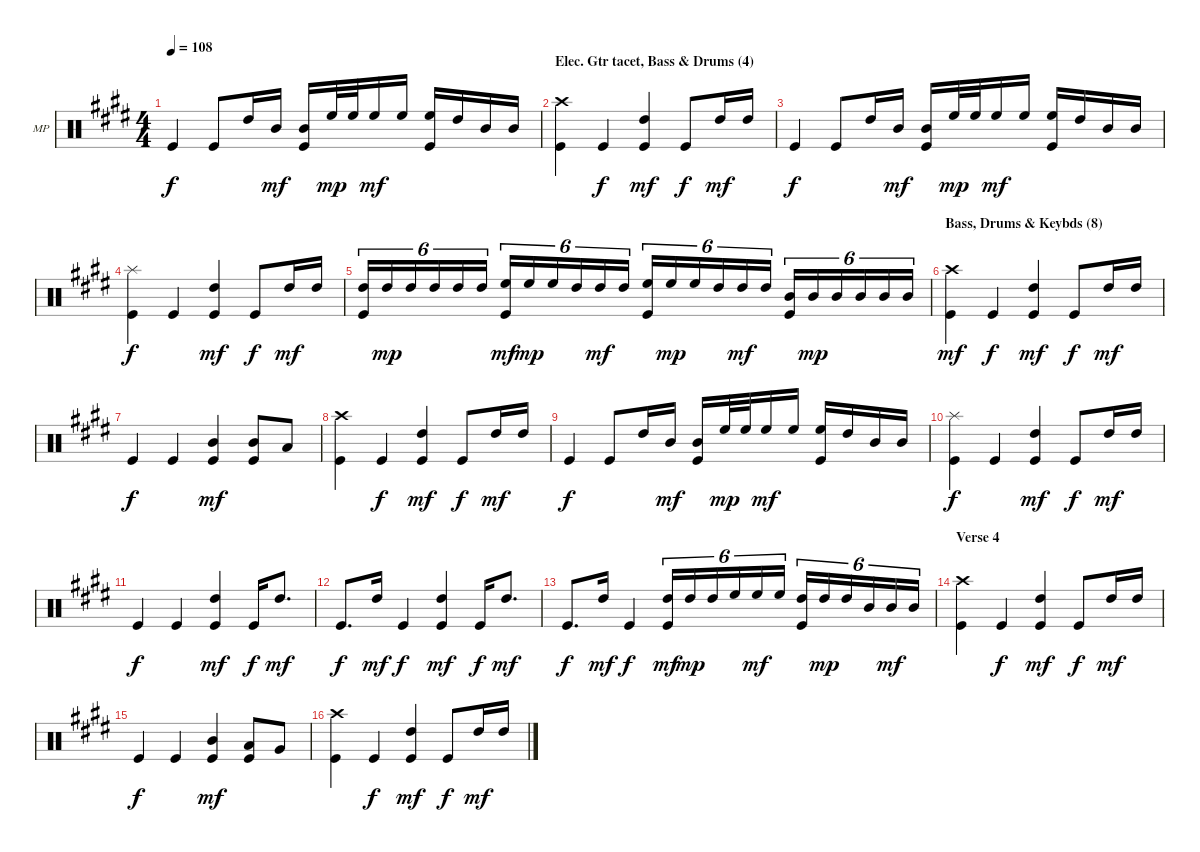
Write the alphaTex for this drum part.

\defaultSystemsLayout 4
\bracketExtendMode groupsimilarinstruments
\firstSystemTrackNameOrientation horizontal
\otherSystemsTrackNameOrientation horizontal
\track ("Mike Portnoy" "MP") {instrument percussion}
\staff {score}
\articulation defaults
\ts (4 4)
\tempo 108
\clef neutral
\ks e "Kick (hit)".4{dy f} "Kick (hit)".8 "High Tom (hit)".16 "Mid Tom (hit)".16{dy mf}
("Mid Tom (hit)" "Kick (hit)").16 "High Floor Tom (hit)".32{dy mp} "High Floor Tom (hit)".32 "High Floor Tom (hit)".16{dy mf} "High Floor Tom (hit)".16 ("High Floor Tom (hit)" "Kick (hit)").16 "High Tom (hit)".16 "Mid Tom (hit)".16 "Mid Tom (hit)".16 |
\section ("" "Elec. Gtr tacet, Bass & Drums (4)")
("Crash high (hit)" "Kick (hit)").4 "Kick (hit)".4{dy f} ("High Tom (hit)" "Kick (hit)").4{dy mf} "Kick (hit)".8{dy f} "High Tom (hit)".16{dy mf} "High Tom (hit)".16 |
"Kick (hit)".4{dy f} "Kick (hit)".8 "High Tom (hit)".16 "Mid Tom (hit)".16{dy mf} ("Mid Tom (hit)" "Kick (hit)").16 "High Floor Tom (hit)".32{dy mp} "High Floor Tom (hit)".32 "High Floor Tom (hit)".16{dy mf} "High Floor Tom (hit)".16 ("High Floor Tom (hit)" "Kick (hit)").16 "High Tom (hit)".16 "Mid Tom (hit)".16 "Mid Tom (hit)".16 |
("Splash (hit)" "Kick (hit)").4{dy f} "Kick (hit)".4 ("High Tom (hit)" "Kick (hit)").4{dy mf} "Kick (hit)".8{dy f} "High Tom (hit)".16{dy mf} "High Tom (hit)".16 |
("High Tom (hit)" "Kick (hit)").16{tu (6 4)} "High Tom (hit)".16{tu (6 4) dy mp} "High Tom (hit)".16{tu (6 4)} "High Tom (hit)".16{tu (6 4)} "High Tom (hit)".16{tu (6 4)} "High Tom (hit)".16{tu (6 4)} ("High Floor Tom (hit)" "Kick (hit)").16{tu (6 4) dy mf} "High Floor Tom (hit)".16{tu (6 4) dy mp} "High Floor Tom (hit)".16{tu (6 4)} "High Tom (hit)".16{tu (6 4)} "High Tom (hit)".16{tu (6 4) dy mf} "High Tom (hit)".16{tu (6 4)} ("High Floor Tom (hit)" "Kick (hit)").16{tu (6 4)} "High Floor Tom (hit)".16{tu (6 4) dy mp} "High Floor Tom (hit)".16{tu (6 4)} "High Tom (hit)".16{tu (6 4)} "High Tom (hit)".16{tu (6 4) dy mf} "High Tom (hit)".16{tu (6 4)} ("Mid Tom (hit)" "Kick (hit)").16{tu (6 4)} "Mid Tom (hit)".16{tu (6 4) dy mp} "Mid Tom (hit)".16{tu (6 4)} "Mid Tom (hit)".16{tu (6 4)} "Mid Tom (hit)".16{tu (6 4)} "Mid Tom (hit)".16{tu (6 4)} |
\section ("" "Bass, Drums & Keybds (8)")
("Crash high (hit)" "Kick (hit)").4{dy mf} "Kick (hit)".4{dy f} ("High Tom (hit)" "Kick (hit)").4{dy mf} "Kick (hit)".8{dy f} "High Tom (hit)".16{dy mf} "High Tom (hit)".16 |
"Kick (hit)".4{dy f} "Kick (hit)".4 ("Mid Tom (hit)" "Kick (hit)").4{dy mf} ("Mid Tom (hit)" "Kick (hit)").8 "Low Tom (hit)".8 |
("Crash high (hit)" "Kick (hit)").4 "Kick (hit)".4{dy f} ("High Tom (hit)" "Kick (hit)").4{dy mf} "Kick (hit)".8{dy f} "High Tom (hit)".16{dy mf} "High Tom (hit)".16 |
"Kick (hit)".4{dy f} "Kick (hit)".8 "High Tom (hit)".16 "Mid Tom (hit)".16{dy mf} ("Mid Tom (hit)" "Kick (hit)").16 "High Floor Tom (hit)".32{dy mp} "High Floor Tom (hit)".32 "High Floor Tom (hit)".16{dy mf} "High Floor Tom (hit)".16 ("High Floor Tom (hit)" "Kick (hit)").16 "High Tom (hit)".16 "Mid Tom (hit)".16 "Mid Tom (hit)".16 |
("Splash (hit)" "Kick (hit)").4{dy f} "Kick (hit)".4 ("High Tom (hit)" "Kick (hit)").4{dy mf} "Kick (hit)".8{dy f} "High Tom (hit)".16{dy mf} "High Tom (hit)".16 |
"Kick (hit)".4{dy f} "Kick (hit)".4 ("High Tom (hit)" "Kick (hit)").4{dy mf} "Kick (hit)".16{dy f} "High Tom (hit)".8{d dy mf} |
"Kick (hit)".8{d dy f} "High Tom (hit)".16{dy mf} "Kick (hit)".4{dy f} ("High Tom (hit)" "Kick (hit)").4{dy mf} "Kick (hit)".16{dy f} "High Tom (hit)".8{d dy mf} |
"Kick (hit)".8{d dy f} "High Tom (hit)".16{dy mf} "Kick (hit)".4{dy f} ("High Tom (hit)" "Kick (hit)").16{tu (6 4) dy mf} "High Tom (hit)".16{tu (6 4) dy mp} "High Tom (hit)".16{tu (6 4)} "High Floor Tom (hit)".16{tu (6 4)} "High Floor Tom (hit)".16{tu (6 4) dy mf} "High Floor Tom (hit)".16{tu (6 4)} ("High Tom (hit)" "Kick (hit)").16{tu (6 4)} "High Tom (hit)".16{tu (6 4) dy mp} "High Tom (hit)".16{tu (6 4)} "Mid Tom (hit)".16{tu (6 4)} "Mid Tom (hit)".16{tu (6 4) dy mf} "Mid Tom (hit)".16{tu (6 4)} |
\section ("" "Verse 4")
("Crash high (hit)" "Kick (hit)").4 "Kick (hit)".4{dy f} ("High Tom (hit)" "Kick (hit)").4{dy mf} "Kick (hit)".8{dy f} "High Tom (hit)".16{dy mf} "High Tom (hit)".16 |
"Kick (hit)".4{dy f} "Kick (hit)".4 ("Mid Tom (hit)" "Kick (hit)").4{dy mf} ("Kick (hit)" "Low Tom (hit)").8 "Very Low Tom (hit)".8 |
("Crash high (hit)" "Kick (hit)").4 "Kick (hit)".4{dy f} ("High Tom (hit)" "Kick (hit)").4{dy mf} "Kick (hit)".8{dy f} "High Tom (hit)".16{dy mf} "High Tom (hit)".16
